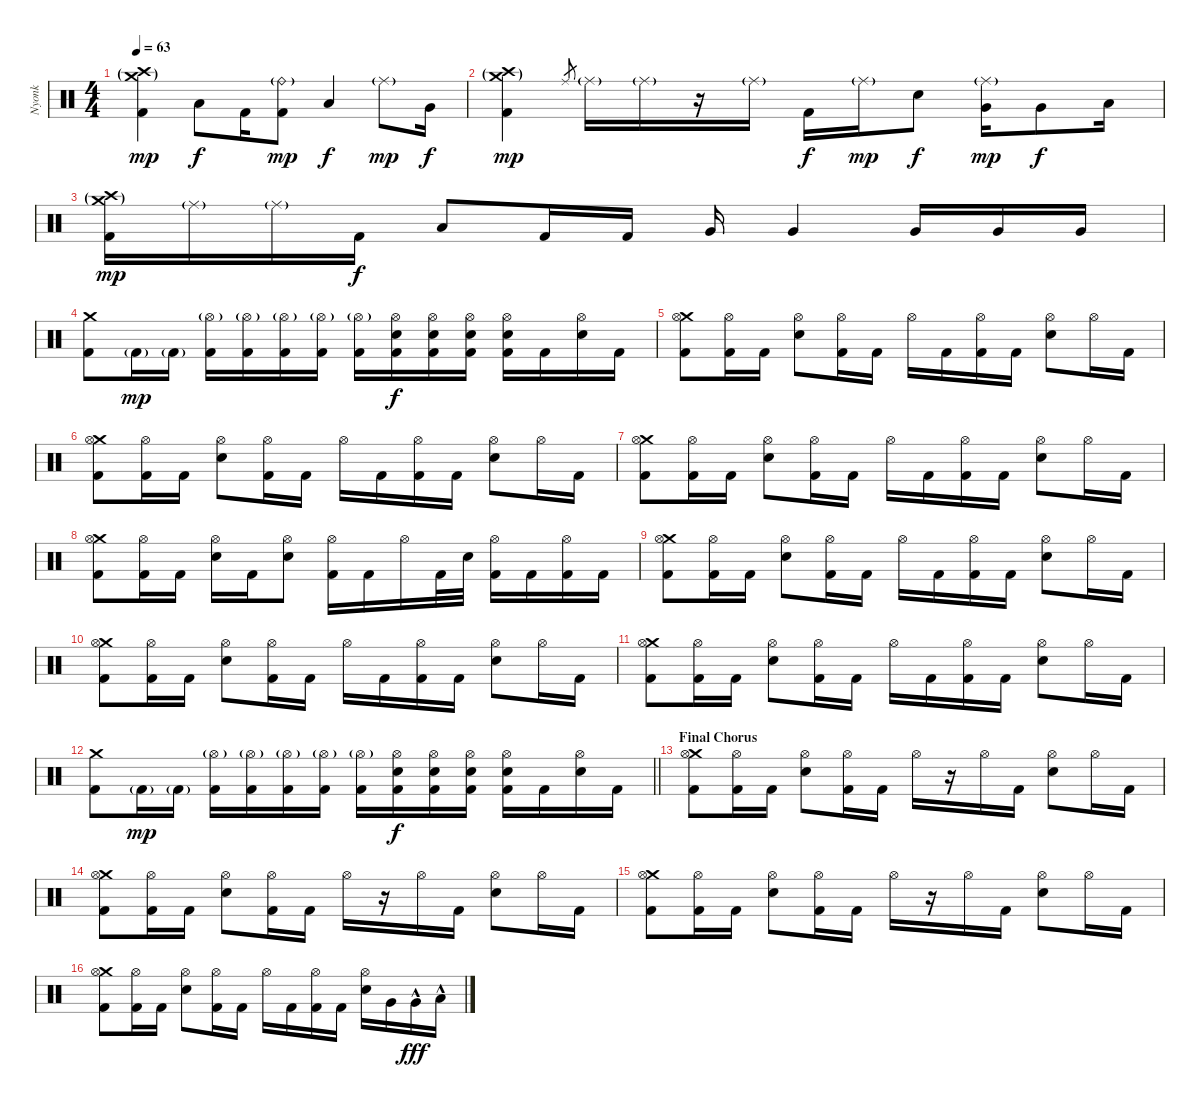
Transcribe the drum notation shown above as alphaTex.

\track ("Nyonk" "Nyonk") {instrument percussion}
\staff {score}
\articulation defaults
\ts (4 4)
\tempo 63
\clef neutral
\ks c
("Crash medium (hit)"{g} "Crash high (hit)"{g} "Kick (hit) 2").4{dy mp} "Low Floor Tom (hit)".8{dy f} "Kick (hit) 2".16 ("Ride (bell)"{g} "Kick (hit) 2").8{dy mp} "Low Tom (hit)".4{dy f} "Ride (middle)"{g}.8{dy mp} "Very Low Tom (hit)".16{dy f} |
("Crash medium (hit)"{g} "Crash high (hit)"{g} "Kick (hit) 2").4{dy mp} "Ride (middle)".8{gr} "Ride (middle)"{g}.16 "Ride (middle)"{g}.16 r.16 "Ride (middle)"{g}.16 "Kick (hit) 2".16{dy f} "Ride (middle)"{g}.16{dy mp} "Electric Snare (hit)".8{dy f} ("Ride (middle)"{g} "Very Low Tom (hit)").16{dy mp} "Very Low Tom (hit)".8{dy f} "Low Tom (hit)".16 |
("Crash medium (hit)"{g} "Crash high (hit)"{g} "Kick (hit) 2").16{dy mp} "Ride (middle)"{g}.16 "Ride (middle)"{g}.16 "Kick (hit) 2".16{dy f} "Low Floor Tom (hit)".8 "Kick (hit) 2".16 "Kick (hit) 2".16 "Very Low Tom (hit)".16 "Very Low Tom (hit)".4 "Very Low Tom (hit)".16 "Very Low Tom (hit)".16 "Very Low Tom (hit)".16 |
("Crash medium (hit)" "Kick (hit) 2").8 "Kick (hit) 2"{g}.16{dy mp} "Kick (hit) 2"{g}.16 ("Hi-Hat (open)"{g} "Kick (hit) 2").16 ("Hi-Hat (open)"{g} "Kick (hit) 2").16 ("Hi-Hat (open)"{g} "Kick (hit) 2").16 ("Hi-Hat (open)"{g} "Kick (hit) 2").16 ("Hi-Hat (open)"{g} "Kick (hit) 2").16 ("Hi-Hat (open)" "Electric Snare (hit)" "Kick (hit) 2").16{dy f} ("Hi-Hat (open)" "Electric Snare (hit)" "Kick (hit) 2").16 ("Hi-Hat (open)" "Electric Snare (hit)" "Kick (hit) 2").16 ("Hi-Hat (open)" "Electric Snare (hit)" "Kick (hit) 2").16 "Kick (hit) 2".16 ("Hi-Hat (open)" "Electric Snare (hit)").16 "Kick (hit) 2".16 |
("Crash medium (hit)" "Hi-Hat (open)" "Kick (hit) 2").8 ("Hi-Hat (open)" "Kick (hit) 2").16 "Kick (hit) 2".16 ("Hi-Hat (open)" "Electric Snare (hit)").8 ("Hi-Hat (open)" "Kick (hit) 2").16 "Kick (hit) 2".16 "Hi-Hat (open)".16 "Kick (hit) 2".16 ("Hi-Hat (open)" "Kick (hit) 2").16 "Kick (hit) 2".16 ("Hi-Hat (open)" "Electric Snare (hit)").8 "Hi-Hat (open)".16 "Kick (hit) 2".16 |
("Crash medium (hit)" "Hi-Hat (open)" "Kick (hit) 2").8 ("Hi-Hat (open)" "Kick (hit) 2").16 "Kick (hit) 2".16 ("Hi-Hat (open)" "Electric Snare (hit)").8 ("Hi-Hat (open)" "Kick (hit) 2").16 "Kick (hit) 2".16 "Hi-Hat (open)".16 "Kick (hit) 2".16 ("Hi-Hat (open)" "Kick (hit) 2").16 "Kick (hit) 2".16 ("Hi-Hat (open)" "Electric Snare (hit)").8 "Hi-Hat (open)".16 "Kick (hit) 2".16 |
("Crash medium (hit)" "Hi-Hat (open)" "Kick (hit) 2").8 ("Hi-Hat (open)" "Kick (hit) 2").16 "Kick (hit) 2".16 ("Hi-Hat (open)" "Electric Snare (hit)").8 ("Hi-Hat (open)" "Kick (hit) 2").16 "Kick (hit) 2".16 "Hi-Hat (open)".16 "Kick (hit) 2".16 ("Hi-Hat (open)" "Kick (hit) 2").16 "Kick (hit) 2".16 ("Hi-Hat (open)" "Electric Snare (hit)").8 "Hi-Hat (open)".16 "Kick (hit) 2".16 |
("Crash medium (hit)" "Hi-Hat (open)" "Kick (hit) 2").8 ("Hi-Hat (open)" "Kick (hit) 2").16 "Kick (hit) 2".16 ("Hi-Hat (open)" "Electric Snare (hit)").16 "Kick (hit) 2".16 ("Hi-Hat (open)" "Electric Snare (hit)").8 ("Hi-Hat (open)" "Kick (hit) 2").16 "Kick (hit) 2".16 "Hi-Hat (open)".16 "Kick (hit) 2".32 "Electric Snare (hit)".32 ("Hi-Hat (open)" "Kick (hit) 2").16 "Kick (hit) 2".16 ("Hi-Hat (open)" "Kick (hit) 2").16 "Kick (hit) 2".16 |
("Crash medium (hit)" "Hi-Hat (open)" "Kick (hit) 2").8 ("Hi-Hat (open)" "Kick (hit) 2").16 "Kick (hit) 2".16 ("Hi-Hat (open)" "Electric Snare (hit)").8 ("Hi-Hat (open)" "Kick (hit) 2").16 "Kick (hit) 2".16 "Hi-Hat (open)".16 "Kick (hit) 2".16 ("Hi-Hat (open)" "Kick (hit) 2").16 "Kick (hit) 2".16 ("Hi-Hat (open)" "Electric Snare (hit)").8 "Hi-Hat (open)".16 "Kick (hit) 2".16 |
("Crash medium (hit)" "Hi-Hat (open)" "Kick (hit) 2").8 ("Hi-Hat (open)" "Kick (hit) 2").16 "Kick (hit) 2".16 ("Hi-Hat (open)" "Electric Snare (hit)").8 ("Hi-Hat (open)" "Kick (hit) 2").16 "Kick (hit) 2".16 "Hi-Hat (open)".16 "Kick (hit) 2".16 ("Hi-Hat (open)" "Kick (hit) 2").16 "Kick (hit) 2".16 ("Hi-Hat (open)" "Electric Snare (hit)").8 "Hi-Hat (open)".16 "Kick (hit) 2".16 |
("Crash medium (hit)" "Hi-Hat (open)" "Kick (hit) 2").8 ("Hi-Hat (open)" "Kick (hit) 2").16 "Kick (hit) 2".16 ("Hi-Hat (open)" "Electric Snare (hit)").8 ("Hi-Hat (open)" "Kick (hit) 2").16 "Kick (hit) 2".16 "Hi-Hat (open)".16 "Kick (hit) 2".16 ("Hi-Hat (open)" "Kick (hit) 2").16 "Kick (hit) 2".16 ("Hi-Hat (open)" "Electric Snare (hit)").8 "Hi-Hat (open)".16 "Kick (hit) 2".16 |
\barLineRight lightlight
("Crash medium (hit)" "Kick (hit) 2").8 "Kick (hit) 2"{g}.16{dy mp} "Kick (hit) 2"{g}.16 ("Hi-Hat (open)"{g} "Kick (hit) 2").16 ("Hi-Hat (open)"{g} "Kick (hit) 2").16 ("Hi-Hat (open)"{g} "Kick (hit) 2").16 ("Hi-Hat (open)"{g} "Kick (hit) 2").16 ("Hi-Hat (open)"{g} "Kick (hit) 2").16 ("Hi-Hat (open)" "Electric Snare (hit)" "Kick (hit) 2").16{dy f} ("Hi-Hat (open)" "Electric Snare (hit)" "Kick (hit) 2").16 ("Hi-Hat (open)" "Electric Snare (hit)" "Kick (hit) 2").16 ("Hi-Hat (open)" "Electric Snare (hit)" "Kick (hit) 2").16 "Kick (hit) 2".16 ("Hi-Hat (open)" "Electric Snare (hit)").16 "Kick (hit) 2".16 |
\section ("" "Final Chorus")
("Crash medium (hit)" "Hi-Hat (open)" "Kick (hit) 2").8 ("Hi-Hat (open)" "Kick (hit) 2").16 "Kick (hit) 2".16 ("Hi-Hat (open)" "Electric Snare (hit)").8 ("Hi-Hat (open)" "Kick (hit) 2").16 "Kick (hit) 2".16 "Hi-Hat (open)".16 r.16 "Hi-Hat (open)".16 "Kick (hit) 2".16 ("Hi-Hat (open)" "Electric Snare (hit)").8 "Hi-Hat (open)".16 "Kick (hit) 2".16 |
("Crash medium (hit)" "Hi-Hat (open)" "Kick (hit) 2").8 ("Hi-Hat (open)" "Kick (hit) 2").16 "Kick (hit) 2".16 ("Hi-Hat (open)" "Electric Snare (hit)").8 ("Hi-Hat (open)" "Kick (hit) 2").16 "Kick (hit) 2".16 "Hi-Hat (open)".16 r.16 "Hi-Hat (open)".16 "Kick (hit) 2".16 ("Hi-Hat (open)" "Electric Snare (hit)").8 "Hi-Hat (open)".16 "Kick (hit) 2".16 |
("Crash medium (hit)" "Hi-Hat (open)" "Kick (hit) 2").8 ("Hi-Hat (open)" "Kick (hit) 2").16 "Kick (hit) 2".16 ("Hi-Hat (open)" "Electric Snare (hit)").8 ("Hi-Hat (open)" "Kick (hit) 2").16 "Kick (hit) 2".16 "Hi-Hat (open)".16 r.16 "Hi-Hat (open)".16 "Kick (hit) 2".16 ("Hi-Hat (open)" "Electric Snare (hit)").8 "Hi-Hat (open)".16 "Kick (hit) 2".16 |
("Crash medium (hit)" "Hi-Hat (open)" "Kick (hit) 2").8 ("Hi-Hat (open)" "Kick (hit) 2").16 "Kick (hit) 2".16 ("Hi-Hat (open)" "Electric Snare (hit)").8 ("Hi-Hat (open)" "Kick (hit) 2").16 "Kick (hit) 2".16 "Hi-Hat (open)".16 "Kick (hit) 2".16 ("Hi-Hat (open)" "Kick (hit) 2").16 "Kick (hit) 2".16 ("Hi-Hat (open)" "Electric Snare (hit)").16 "Very Low Tom (hit)".16 "Very Low Tom (hit)"{hac}.16{dy fff} "Low Floor Tom (hit)"{hac}.16
